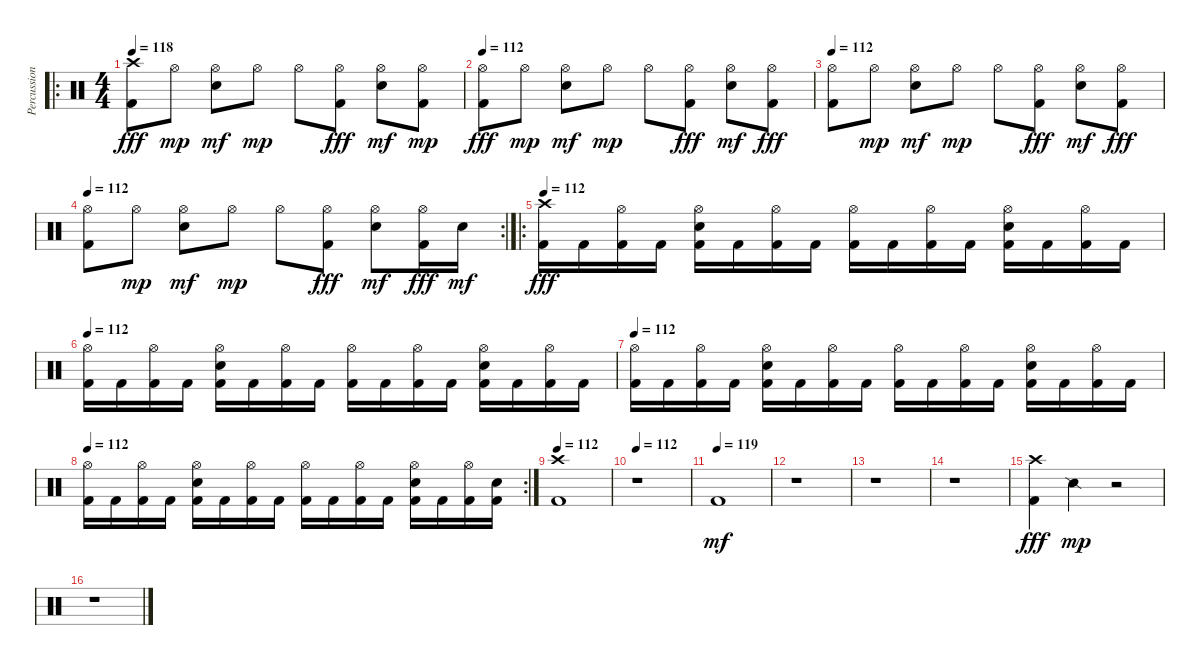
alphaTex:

\track ("Percussion" "Percussion") {instrument percussion}
\staff {score}
\articulation defaults
\ro
\ts (4 4)
\tempo 118
\tempo 112
\tempo 118
\clef neutral
\ks c
("Crash high (hit)" "Kick (hit) 2").8{dy fff} "Hi-Hat (open)".8{dy mp} ("Hi-Hat (open)" "Electric Snare (hit)").8{dy mf} "Hi-Hat (open)".8{dy mp} "Hi-Hat (open)".8 ("Hi-Hat (open)" "Kick (hit) 2").8{dy fff} ("Hi-Hat (open)" "Electric Snare (hit)").8{dy mf} ("Hi-Hat (open)" "Kick (hit) 2").8{dy mp} |
\tempo 112
("Hi-Hat (open)" "Kick (hit) 2").8{dy fff} "Hi-Hat (open)".8{dy mp} ("Hi-Hat (open)" "Electric Snare (hit)").8{dy mf} "Hi-Hat (open)".8{dy mp} "Hi-Hat (open)".8 ("Hi-Hat (open)" "Kick (hit) 2").8{dy fff} ("Hi-Hat (open)" "Electric Snare (hit)").8{dy mf} ("Hi-Hat (open)" "Kick (hit) 2").8{dy fff} |
\tempo 112
("Hi-Hat (open)" "Kick (hit) 2").8 "Hi-Hat (open)".8{dy mp} ("Hi-Hat (open)" "Electric Snare (hit)").8{dy mf} "Hi-Hat (open)".8{dy mp} "Hi-Hat (open)".8 ("Hi-Hat (open)" "Kick (hit) 2").8{dy fff} ("Hi-Hat (open)" "Electric Snare (hit)").8{dy mf} ("Hi-Hat (open)" "Kick (hit) 2").8{dy fff} |
\rc 2
\tempo 112
("Hi-Hat (open)" "Kick (hit) 2").8 "Hi-Hat (open)".8{dy mp} ("Hi-Hat (open)" "Electric Snare (hit)").8{dy mf} "Hi-Hat (open)".8{dy mp} "Hi-Hat (open)".8 ("Hi-Hat (open)" "Kick (hit) 2").8{dy fff} ("Hi-Hat (open)" "Electric Snare (hit)").8{dy mf} ("Hi-Hat (open)" "Kick (hit) 2").16{dy fff} "Electric Snare (hit)".16{dy mf} |
\ro
\tempo 112
("Crash high (hit)" "Kick (hit) 2").16{dy fff} "Kick (hit) 2".16 ("Hi-Hat (open)" "Kick (hit) 2").16 "Kick (hit) 2".16 ("Hi-Hat (open)" "Electric Snare (hit)" "Kick (hit) 2").16 "Kick (hit) 2".16 ("Hi-Hat (open)" "Kick (hit) 2").16 "Kick (hit) 2".16 ("Hi-Hat (open)" "Kick (hit) 2").16 "Kick (hit) 2".16 ("Hi-Hat (open)" "Kick (hit) 2").16 "Kick (hit) 2".16 ("Hi-Hat (open)" "Electric Snare (hit)" "Kick (hit) 2").16 "Kick (hit) 2".16 ("Hi-Hat (open)" "Kick (hit) 2").16 "Kick (hit) 2".16 |
\tempo 112
("Hi-Hat (open)" "Kick (hit) 2").16 "Kick (hit) 2".16 ("Hi-Hat (open)" "Kick (hit) 2").16 "Kick (hit) 2".16 ("Hi-Hat (open)" "Electric Snare (hit)" "Kick (hit) 2").16 "Kick (hit) 2".16 ("Hi-Hat (open)" "Kick (hit) 2").16 "Kick (hit) 2".16 ("Hi-Hat (open)" "Kick (hit) 2").16 "Kick (hit) 2".16 ("Hi-Hat (open)" "Kick (hit) 2").16 "Kick (hit) 2".16 ("Hi-Hat (open)" "Electric Snare (hit)" "Kick (hit) 2").16 "Kick (hit) 2".16 ("Hi-Hat (open)" "Kick (hit) 2").16 "Kick (hit) 2".16 |
\tempo 112
("Hi-Hat (open)" "Kick (hit) 2").16 "Kick (hit) 2".16 ("Hi-Hat (open)" "Kick (hit) 2").16 "Kick (hit) 2".16 ("Hi-Hat (open)" "Electric Snare (hit)" "Kick (hit) 2").16 "Kick (hit) 2".16 ("Hi-Hat (open)" "Kick (hit) 2").16 "Kick (hit) 2".16 ("Hi-Hat (open)" "Kick (hit) 2").16 "Kick (hit) 2".16 ("Hi-Hat (open)" "Kick (hit) 2").16 "Kick (hit) 2".16 ("Hi-Hat (open)" "Electric Snare (hit)" "Kick (hit) 2").16 "Kick (hit) 2".16 ("Hi-Hat (open)" "Kick (hit) 2").16 "Kick (hit) 2".16 |
\rc 2
\tempo 112
("Hi-Hat (open)" "Kick (hit) 2").16 "Kick (hit) 2".16 ("Hi-Hat (open)" "Kick (hit) 2").16 "Kick (hit) 2".16 ("Hi-Hat (open)" "Electric Snare (hit)" "Kick (hit) 2").16 "Kick (hit) 2".16 ("Hi-Hat (open)" "Kick (hit) 2").16 "Kick (hit) 2".16 ("Hi-Hat (open)" "Kick (hit) 2").16 "Kick (hit) 2".16 ("Hi-Hat (open)" "Kick (hit) 2").16 "Kick (hit) 2".16 ("Hi-Hat (open)" "Electric Snare (hit)" "Kick (hit) 2").16 "Kick (hit) 2".16 ("Hi-Hat (open)" "Kick (hit) 2").16 ("Electric Snare (hit)" "Kick (hit) 2").16 |
\tempo 112
("Crash high (hit)" "Kick (hit) 2").1 |
\tempo 112
r.1 |
\tempo (119)
"Kick (hit) 2".1{dy mf} |
r.1 |
r.1 |
r.1 |
("Crash high (hit)" "Kick (hit) 2").4{dy fff} "Snare (side stick) 2".4{dy mp} r.2 |
r.1
